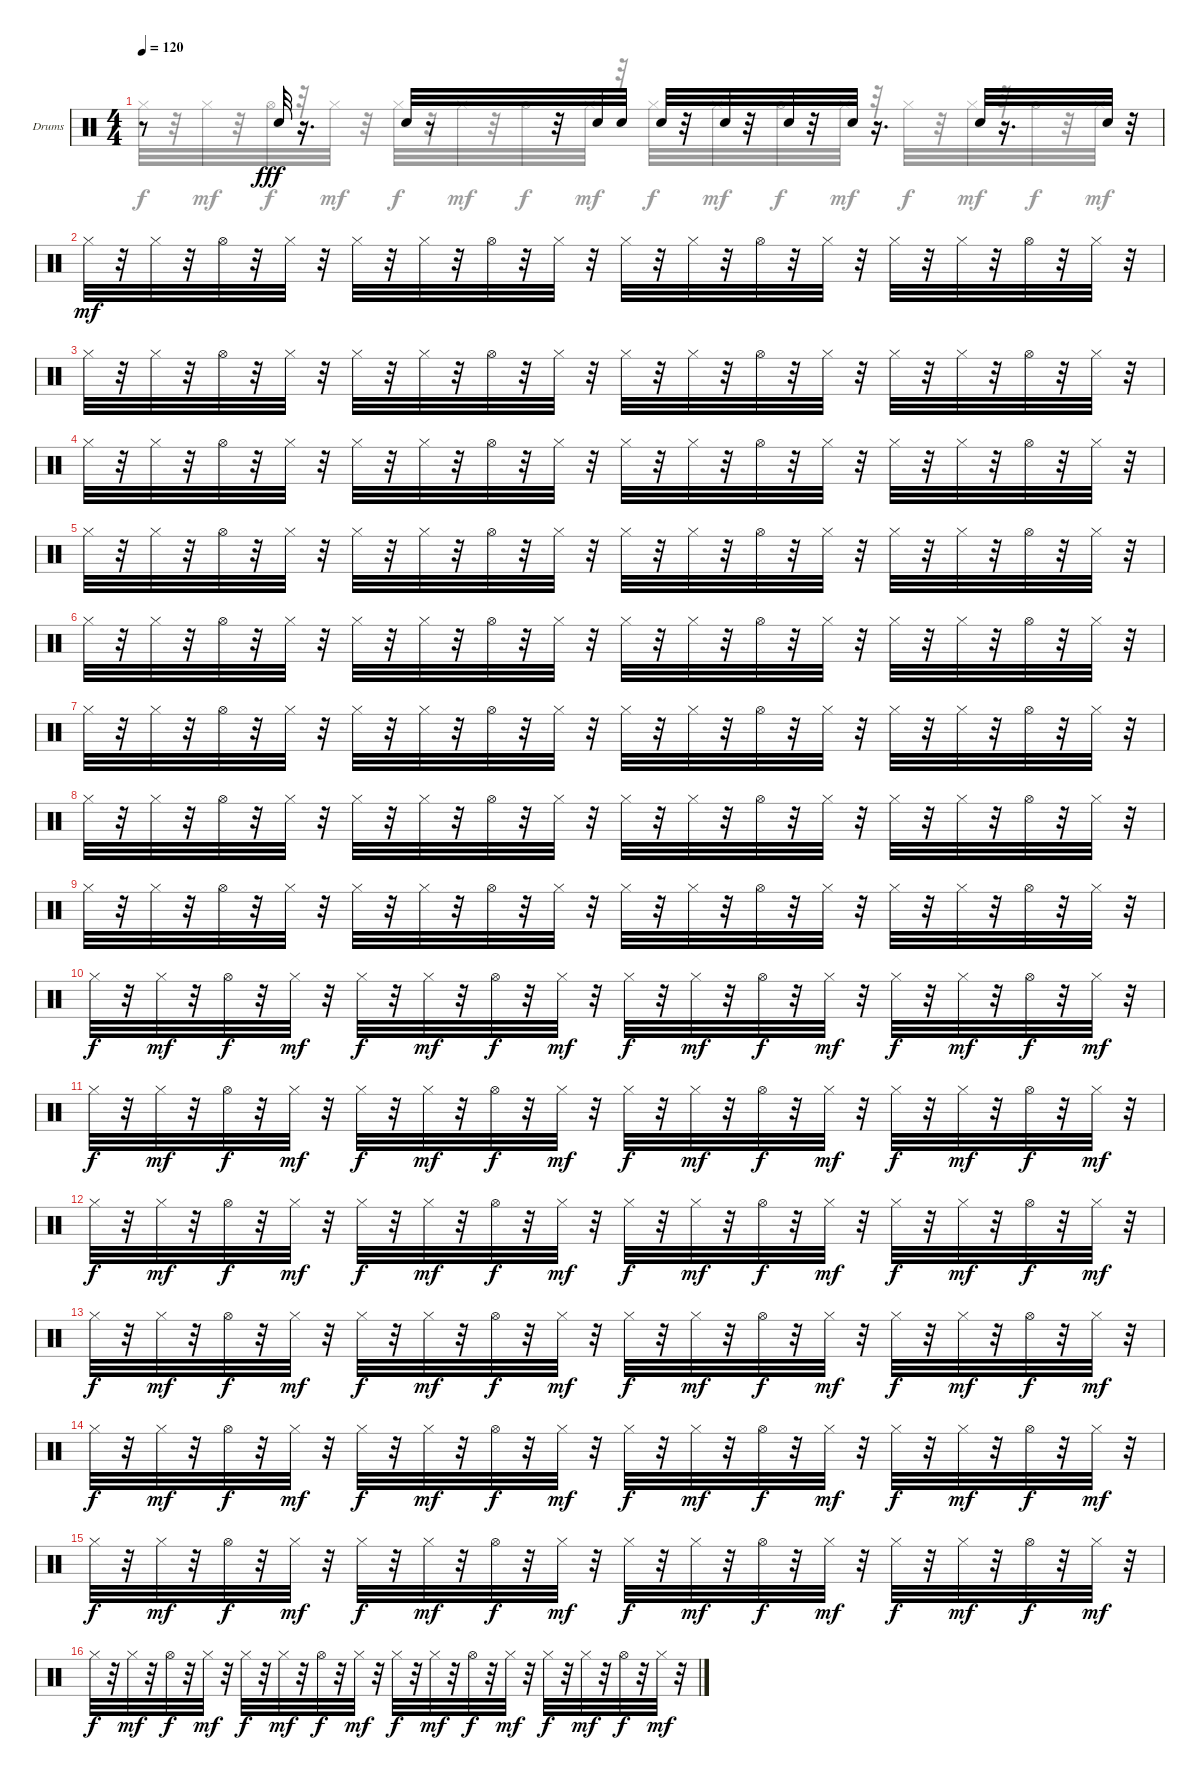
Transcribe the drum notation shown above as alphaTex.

\defaultSystemsLayout 4
\bracketExtendMode nobrackets
\firstSystemTrackNameOrientation horizontal
\otherSystemsTrackNameOrientation horizontal
\track ("Drumkit" "Drums") {instrument percussion}
\staff {score}
\articulation defaults
\voice
\ts (4 4)
\tempo 120
\clef neutral
\ks c
r.8{dy mf} "Snare (hit) 2".32{dy fff} r.16{d} "Snare (hit) 2".32 r.8 r.32 "Snare (hit) 2".32 "Snare (hit) 2".32 "Snare (hit) 2".32 r.32 "Snare (hit) 2".32 r.32 "Snare (hit) 2".32 r.32 "Snare (hit) 2".32 r.16{d} "Snare (hit) 2".32 r.16{d} "Snare (hit) 2".32 r.32 |
"Hi-Hat (closed)".32{dy mf} r.32 "Hi-Hat (closed)".32 r.32 "Hi-Hat (open)".32 r.32 "Hi-Hat (closed)".32 r.32 "Hi-Hat (closed)".32 r.32 "Hi-Hat (closed)".32 r.32 "Hi-Hat (open)".32 r.32 "Hi-Hat (closed)".32 r.32 "Hi-Hat (closed)".32 r.32 "Hi-Hat (closed)".32 r.32 "Hi-Hat (open)".32 r.32 "Hi-Hat (closed)".32 r.32 "Hi-Hat (closed)".32 r.32 "Hi-Hat (closed)".32 r.32 "Hi-Hat (open)".32 r.32 "Hi-Hat (closed)".32 r.32 |
"Hi-Hat (closed)".32 r.32 "Hi-Hat (closed)".32 r.32 "Hi-Hat (open)".32 r.32 "Hi-Hat (closed)".32 r.32 "Hi-Hat (closed)".32 r.32 "Hi-Hat (closed)".32 r.32 "Hi-Hat (open)".32 r.32 "Hi-Hat (closed)".32 r.32 "Hi-Hat (closed)".32 r.32 "Hi-Hat (closed)".32 r.32 "Hi-Hat (open)".32 r.32 "Hi-Hat (closed)".32 r.32 "Hi-Hat (closed)".32 r.32 "Hi-Hat (closed)".32 r.32 "Hi-Hat (open)".32 r.32 "Hi-Hat (closed)".32 r.32 |
"Hi-Hat (closed)".32 r.32 "Hi-Hat (closed)".32 r.32 "Hi-Hat (open)".32 r.32 "Hi-Hat (closed)".32 r.32 "Hi-Hat (closed)".32 r.32 "Hi-Hat (closed)".32 r.32 "Hi-Hat (open)".32 r.32 "Hi-Hat (closed)".32 r.32 "Hi-Hat (closed)".32 r.32 "Hi-Hat (closed)".32 r.32 "Hi-Hat (open)".32 r.32 "Hi-Hat (closed)".32 r.32 "Hi-Hat (closed)".32 r.32 "Hi-Hat (closed)".32 r.32 "Hi-Hat (open)".32 r.32 "Hi-Hat (closed)".32 r.32 |
"Hi-Hat (closed)".32 r.32 "Hi-Hat (closed)".32 r.32 "Hi-Hat (open)".32 r.32 "Hi-Hat (closed)".32 r.32 "Hi-Hat (closed)".32 r.32 "Hi-Hat (closed)".32 r.32 "Hi-Hat (open)".32 r.32 "Hi-Hat (closed)".32 r.32 "Hi-Hat (closed)".32 r.32 "Hi-Hat (closed)".32 r.32 "Hi-Hat (open)".32 r.32 "Hi-Hat (closed)".32 r.32 "Hi-Hat (closed)".32 r.32 "Hi-Hat (closed)".32 r.32 "Hi-Hat (open)".32 r.32 "Hi-Hat (closed)".32 r.32 |
"Hi-Hat (closed)".32 r.32 "Hi-Hat (closed)".32 r.32 "Hi-Hat (open)".32 r.32 "Hi-Hat (closed)".32 r.32 "Hi-Hat (closed)".32 r.32 "Hi-Hat (closed)".32 r.32 "Hi-Hat (open)".32 r.32 "Hi-Hat (closed)".32 r.32 "Hi-Hat (closed)".32 r.32 "Hi-Hat (closed)".32 r.32 "Hi-Hat (open)".32 r.32 "Hi-Hat (closed)".32 r.32 "Hi-Hat (closed)".32 r.32 "Hi-Hat (closed)".32 r.32 "Hi-Hat (open)".32 r.32 "Hi-Hat (closed)".32 r.32 |
"Hi-Hat (closed)".32 r.32 "Hi-Hat (closed)".32 r.32 "Hi-Hat (open)".32 r.32 "Hi-Hat (closed)".32 r.32 "Hi-Hat (closed)".32 r.32 "Hi-Hat (closed)".32 r.32 "Hi-Hat (open)".32 r.32 "Hi-Hat (closed)".32 r.32 "Hi-Hat (closed)".32 r.32 "Hi-Hat (closed)".32 r.32 "Hi-Hat (open)".32 r.32 "Hi-Hat (closed)".32 r.32 "Hi-Hat (closed)".32 r.32 "Hi-Hat (closed)".32 r.32 "Hi-Hat (open)".32 r.32 "Hi-Hat (closed)".32 r.32 |
"Hi-Hat (closed)".32 r.32 "Hi-Hat (closed)".32 r.32 "Hi-Hat (open)".32 r.32 "Hi-Hat (closed)".32 r.32 "Hi-Hat (closed)".32 r.32 "Hi-Hat (closed)".32 r.32 "Hi-Hat (open)".32 r.32 "Hi-Hat (closed)".32 r.32 "Hi-Hat (closed)".32 r.32 "Hi-Hat (closed)".32 r.32 "Hi-Hat (open)".32 r.32 "Hi-Hat (closed)".32 r.32 "Hi-Hat (closed)".32 r.32 "Hi-Hat (closed)".32 r.32 "Hi-Hat (open)".32 r.32 "Hi-Hat (closed)".32 r.32 |
"Hi-Hat (closed)".32 r.32 "Hi-Hat (closed)".32 r.32 "Hi-Hat (open)".32 r.32 "Hi-Hat (closed)".32 r.32 "Hi-Hat (closed)".32 r.32 "Hi-Hat (closed)".32 r.32 "Hi-Hat (open)".32 r.32 "Hi-Hat (closed)".32 r.32 "Hi-Hat (closed)".32 r.32 "Hi-Hat (closed)".32 r.32 "Hi-Hat (open)".32 r.32 "Hi-Hat (closed)".32 r.32 "Hi-Hat (closed)".32 r.32 "Hi-Hat (closed)".32 r.32 "Hi-Hat (open)".32 r.32 "Hi-Hat (closed)".32 r.32 |
"Hi-Hat (closed)".32{dy f} r.32 "Hi-Hat (closed)".32{dy mf} r.32 "Hi-Hat (open)".32{dy f} r.32 "Hi-Hat (closed)".32{dy mf} r.32 "Hi-Hat (closed)".32{dy f} r.32 "Hi-Hat (closed)".32{dy mf} r.32 "Hi-Hat (open)".32{dy f} r.32 "Hi-Hat (closed)".32{dy mf} r.32 "Hi-Hat (closed)".32{dy f} r.32 "Hi-Hat (closed)".32{dy mf} r.32 "Hi-Hat (open)".32{dy f} r.32 "Hi-Hat (closed)".32{dy mf} r.32 "Hi-Hat (closed)".32{dy f} r.32 "Hi-Hat (closed)".32{dy mf} r.32 "Hi-Hat (open)".32{dy f} r.32 "Hi-Hat (closed)".32{dy mf} r.32 |
"Hi-Hat (closed)".32{dy f} r.32 "Hi-Hat (closed)".32{dy mf} r.32 "Hi-Hat (open)".32{dy f} r.32 "Hi-Hat (closed)".32{dy mf} r.32 "Hi-Hat (closed)".32{dy f} r.32 "Hi-Hat (closed)".32{dy mf} r.32 "Hi-Hat (open)".32{dy f} r.32 "Hi-Hat (closed)".32{dy mf} r.32 "Hi-Hat (closed)".32{dy f} r.32 "Hi-Hat (closed)".32{dy mf} r.32 "Hi-Hat (open)".32{dy f} r.32 "Hi-Hat (closed)".32{dy mf} r.32 "Hi-Hat (closed)".32{dy f} r.32 "Hi-Hat (closed)".32{dy mf} r.32 "Hi-Hat (open)".32{dy f} r.32 "Hi-Hat (closed)".32{dy mf} r.32 |
"Hi-Hat (closed)".32{dy f} r.32 "Hi-Hat (closed)".32{dy mf} r.32 "Hi-Hat (open)".32{dy f} r.32 "Hi-Hat (closed)".32{dy mf} r.32 "Hi-Hat (closed)".32{dy f} r.32 "Hi-Hat (closed)".32{dy mf} r.32 "Hi-Hat (open)".32{dy f} r.32 "Hi-Hat (closed)".32{dy mf} r.32 "Hi-Hat (closed)".32{dy f} r.32 "Hi-Hat (closed)".32{dy mf} r.32 "Hi-Hat (open)".32{dy f} r.32 "Hi-Hat (closed)".32{dy mf} r.32 "Hi-Hat (closed)".32{dy f} r.32 "Hi-Hat (closed)".32{dy mf} r.32 "Hi-Hat (open)".32{dy f} r.32 "Hi-Hat (closed)".32{dy mf} r.32 |
"Hi-Hat (closed)".32{dy f} r.32 "Hi-Hat (closed)".32{dy mf} r.32 "Hi-Hat (open)".32{dy f} r.32 "Hi-Hat (closed)".32{dy mf} r.32 "Hi-Hat (closed)".32{dy f} r.32 "Hi-Hat (closed)".32{dy mf} r.32 "Hi-Hat (open)".32{dy f} r.32 "Hi-Hat (closed)".32{dy mf} r.32 "Hi-Hat (closed)".32{dy f} r.32 "Hi-Hat (closed)".32{dy mf} r.32 "Hi-Hat (open)".32{dy f} r.32 "Hi-Hat (closed)".32{dy mf} r.32 "Hi-Hat (closed)".32{dy f} r.32 "Hi-Hat (closed)".32{dy mf} r.32 "Hi-Hat (open)".32{dy f} r.32 "Hi-Hat (closed)".32{dy mf} r.32 |
"Hi-Hat (closed)".32{dy f} r.32 "Hi-Hat (closed)".32{dy mf} r.32 "Hi-Hat (open)".32{dy f} r.32 "Hi-Hat (closed)".32{dy mf} r.32 "Hi-Hat (closed)".32{dy f} r.32 "Hi-Hat (closed)".32{dy mf} r.32 "Hi-Hat (open)".32{dy f} r.32 "Hi-Hat (closed)".32{dy mf} r.32 "Hi-Hat (closed)".32{dy f} r.32 "Hi-Hat (closed)".32{dy mf} r.32 "Hi-Hat (open)".32{dy f} r.32 "Hi-Hat (closed)".32{dy mf} r.32 "Hi-Hat (closed)".32{dy f} r.32 "Hi-Hat (closed)".32{dy mf} r.32 "Hi-Hat (open)".32{dy f} r.32 "Hi-Hat (closed)".32{dy mf} r.32 |
"Hi-Hat (closed)".32{dy f} r.32 "Hi-Hat (closed)".32{dy mf} r.32 "Hi-Hat (open)".32{dy f} r.32 "Hi-Hat (closed)".32{dy mf} r.32 "Hi-Hat (closed)".32{dy f} r.32 "Hi-Hat (closed)".32{dy mf} r.32 "Hi-Hat (open)".32{dy f} r.32 "Hi-Hat (closed)".32{dy mf} r.32 "Hi-Hat (closed)".32{dy f} r.32 "Hi-Hat (closed)".32{dy mf} r.32 "Hi-Hat (open)".32{dy f} r.32 "Hi-Hat (closed)".32{dy mf} r.32 "Hi-Hat (closed)".32{dy f} r.32 "Hi-Hat (closed)".32{dy mf} r.32 "Hi-Hat (open)".32{dy f} r.32 "Hi-Hat (closed)".32{dy mf} r.32 |
"Hi-Hat (closed)".32{dy f} r.32 "Hi-Hat (closed)".32{dy mf} r.32 "Hi-Hat (open)".32{dy f} r.32 "Hi-Hat (closed)".32{dy mf} r.32 "Hi-Hat (closed)".32{dy f} r.32 "Hi-Hat (closed)".32{dy mf} r.32 "Hi-Hat (open)".32{dy f} r.32 "Hi-Hat (closed)".32{dy mf} r.32 "Hi-Hat (closed)".32{dy f} r.32 "Hi-Hat (closed)".32{dy mf} r.32 "Hi-Hat (open)".32{dy f} r.32 "Hi-Hat (closed)".32{dy mf} r.32 "Hi-Hat (closed)".32{dy f} r.32 "Hi-Hat (closed)".32{dy mf} r.32 "Hi-Hat (open)".32{dy f} r.32 "Hi-Hat (closed)".32{dy mf} r.32
\voice
\clef neutral
\ottava regular
\simile none
\ks c "Hi-Hat (closed)".32{dy f}
r.32 "Hi-Hat (closed)".32{dy mf} r.32 "Hi-Hat (open)".32{dy f} r.32 "Hi-Hat (closed)".32{dy mf} r.32 "Hi-Hat (closed)".32{dy f} r.32 "Hi-Hat (closed)".32{dy mf} r.32 "Hi-Hat (open)".32{dy f} r.32 "Hi-Hat (closed)".32{dy mf} r.32 "Hi-Hat (closed)".32{dy f} r.32 "Hi-Hat (closed)".32{dy mf} r.32 "Hi-Hat (open)".32{dy f} r.32 "Hi-Hat (closed)".32{dy mf} r.32 "Hi-Hat (closed)".32{dy f} r.32 "Hi-Hat (closed)".32{dy mf} r.32 "Hi-Hat (open)".32{dy f} r.32 "Hi-Hat (closed)".32{dy mf} r.32 |
|
|
|
|
|
|
|
|
|
|
|
|
|
|
